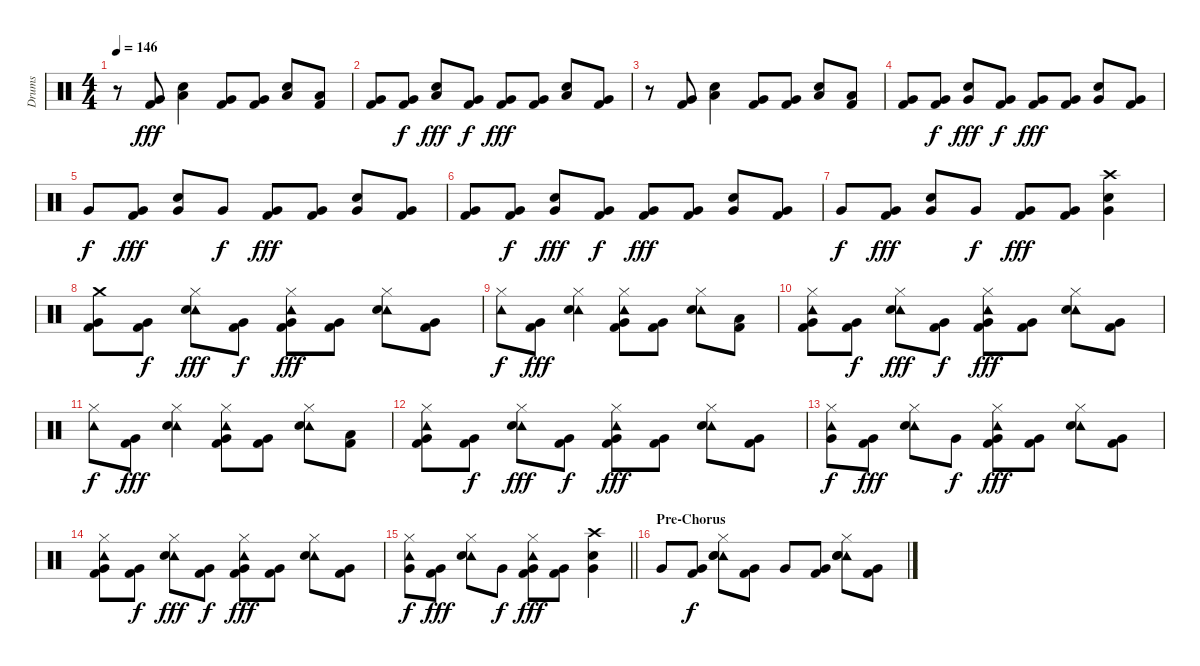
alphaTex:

\track ("Drums" "Drums") {instrument percussion}
\staff {score}
\articulation defaults
\ts (4 4)
\tempo 146
\clef neutral
\ks c
r.8{dy fff} ("Very Low Tom (hit)" "Kick (hit) 2").8 ("Electric Snare (hit)" "Low Tom (hit)").4 ("Very Low Tom (hit)" "Kick (hit) 2").8 ("Very Low Tom (hit)" "Kick (hit) 2").8 ("Electric Snare (hit)" "Low Tom (hit)").8 ("Low Tom (hit)" "Kick (hit) 2").8 |
("Very Low Tom (hit)" "Kick (hit) 2").8 ("Very Low Tom (hit)" "Kick (hit) 2").8{dy f} ("Electric Snare (hit)" "Low Tom (hit)").8{dy fff} ("Very Low Tom (hit)" "Kick (hit) 2").8{dy f} ("Very Low Tom (hit)" "Kick (hit) 2").8{dy fff} ("Very Low Tom (hit)" "Kick (hit) 2").8 ("Electric Snare (hit)" "Low Tom (hit)").8 ("Very Low Tom (hit)" "Kick (hit) 2").8 |
r.8 ("Very Low Tom (hit)" "Kick (hit) 2").8 ("Electric Snare (hit)" "Low Tom (hit)").4 ("Very Low Tom (hit)" "Kick (hit) 2").8 ("Very Low Tom (hit)" "Kick (hit) 2").8 ("Electric Snare (hit)" "Low Tom (hit)").8 ("Low Tom (hit)" "Kick (hit) 2").8 |
("Very Low Tom (hit)" "Kick (hit) 2").8 ("Very Low Tom (hit)" "Kick (hit) 2").8{dy f} ("Electric Snare (hit)" "Very Low Tom (hit)").8{dy fff} ("Very Low Tom (hit)" "Kick (hit) 2").8{dy f} ("Very Low Tom (hit)" "Kick (hit) 2").8{dy fff} ("Very Low Tom (hit)" "Kick (hit) 2").8 ("Electric Snare (hit)" "Very Low Tom (hit)").8 ("Very Low Tom (hit)" "Kick (hit) 2").8 |
"Very Low Tom (hit)".8{dy f} ("Very Low Tom (hit)" "Kick (hit) 2").8{dy fff} ("Electric Snare (hit)" "Very Low Tom (hit)").8 "Very Low Tom (hit)".8{dy f} ("Very Low Tom (hit)" "Kick (hit) 2").8{dy fff} ("Very Low Tom (hit)" "Kick (hit) 2").8 ("Electric Snare (hit)" "Very Low Tom (hit)").8 ("Very Low Tom (hit)" "Kick (hit) 2").8 |
("Very Low Tom (hit)" "Kick (hit) 2").8 ("Very Low Tom (hit)" "Kick (hit) 2").8{dy f} ("Electric Snare (hit)" "Very Low Tom (hit)").8{dy fff} ("Very Low Tom (hit)" "Kick (hit) 2").8{dy f} ("Very Low Tom (hit)" "Kick (hit) 2").8{dy fff} ("Very Low Tom (hit)" "Kick (hit) 2").8 ("Electric Snare (hit)" "Very Low Tom (hit)").8 ("Very Low Tom (hit)" "Kick (hit) 2").8 |
"Very Low Tom (hit)".8{dy f} ("Very Low Tom (hit)" "Kick (hit) 2").8{dy fff} ("Electric Snare (hit)" "Very Low Tom (hit)").8 "Very Low Tom (hit)".8{dy f} ("Very Low Tom (hit)" "Kick (hit) 2").8{dy fff} ("Very Low Tom (hit)" "Kick (hit) 2").8 ("Crash high (hit)" "Electric Snare (hit)" "Very Low Tom (hit)").4 |
("Crash medium (hit)" "Very Low Tom (hit)" "Kick (hit) 2").8 ("Very Low Tom (hit)" "Kick (hit) 2").8{dy f} ("Tambourine (hit)" "Hi-Hat (closed)" "Electric Snare (hit)").8{dy fff} ("Very Low Tom (hit)" "Kick (hit) 2").8{dy f} ("Tambourine (hit)" "Hi-Hat (closed)" "Very Low Tom (hit)" "Kick (hit) 2").8{dy fff} ("Very Low Tom (hit)" "Kick (hit) 2").8 ("Tambourine (hit)" "Hi-Hat (closed)" "Electric Snare (hit)").8 ("Very Low Tom (hit)" "Kick (hit) 2").8 |
("Tambourine (hit)" "Hi-Hat (closed)").8{dy f} ("Very Low Tom (hit)" "Kick (hit) 2").8{dy fff} ("Tambourine (hit)" "Hi-Hat (closed)" "Electric Snare (hit)").4 ("Tambourine (hit)" "Hi-Hat (closed)" "Very Low Tom (hit)" "Kick (hit) 2").8 ("Very Low Tom (hit)" "Kick (hit) 2").8 ("Tambourine (hit)" "Hi-Hat (closed)" "Electric Snare (hit)").8 ("Low Tom (hit)" "Kick (hit) 2").8 |
("Tambourine (hit)" "Hi-Hat (closed)" "Very Low Tom (hit)" "Kick (hit) 2").8 ("Very Low Tom (hit)" "Kick (hit) 2").8{dy f} ("Tambourine (hit)" "Hi-Hat (closed)" "Electric Snare (hit)").8{dy fff} ("Very Low Tom (hit)" "Kick (hit) 2").8{dy f} ("Tambourine (hit)" "Hi-Hat (closed)" "Very Low Tom (hit)" "Kick (hit) 2").8{dy fff} ("Very Low Tom (hit)" "Kick (hit) 2").8 ("Tambourine (hit)" "Hi-Hat (closed)" "Electric Snare (hit)").8 ("Very Low Tom (hit)" "Kick (hit) 2").8 |
("Tambourine (hit)" "Hi-Hat (closed)").8{dy f} ("Very Low Tom (hit)" "Kick (hit) 2").8{dy fff} ("Tambourine (hit)" "Hi-Hat (closed)" "Electric Snare (hit)").4 ("Tambourine (hit)" "Hi-Hat (closed)" "Very Low Tom (hit)" "Kick (hit) 2").8 ("Very Low Tom (hit)" "Kick (hit) 2").8 ("Tambourine (hit)" "Hi-Hat (closed)" "Electric Snare (hit)").8 ("Low Tom (hit)" "Kick (hit) 2").8 |
("Tambourine (hit)" "Hi-Hat (closed)" "Very Low Tom (hit)" "Kick (hit) 2").8 ("Very Low Tom (hit)" "Kick (hit) 2").8{dy f} ("Tambourine (hit)" "Hi-Hat (closed)" "Electric Snare (hit)").8{dy fff} ("Very Low Tom (hit)" "Kick (hit) 2").8{dy f} ("Tambourine (hit)" "Hi-Hat (closed)" "Very Low Tom (hit)" "Kick (hit) 2").8{dy fff} ("Very Low Tom (hit)" "Kick (hit) 2").8 ("Tambourine (hit)" "Hi-Hat (closed)" "Electric Snare (hit)").8 ("Very Low Tom (hit)" "Kick (hit) 2").8 |
("Tambourine (hit)" "Hi-Hat (closed)" "Very Low Tom (hit)").8{dy f} ("Very Low Tom (hit)" "Kick (hit) 2").8{dy fff} ("Tambourine (hit)" "Hi-Hat (closed)" "Electric Snare (hit)").8 "Very Low Tom (hit)".8{dy f} ("Tambourine (hit)" "Hi-Hat (closed)" "Very Low Tom (hit)" "Kick (hit) 2").8{dy fff} ("Very Low Tom (hit)" "Kick (hit) 2").8 ("Tambourine (hit)" "Hi-Hat (closed)" "Electric Snare (hit)").8 ("Very Low Tom (hit)" "Kick (hit) 2").8 |
("Tambourine (hit)" "Hi-Hat (closed)" "Very Low Tom (hit)" "Kick (hit) 2").8 ("Very Low Tom (hit)" "Kick (hit) 2").8{dy f} ("Tambourine (hit)" "Hi-Hat (closed)" "Electric Snare (hit)").8{dy fff} ("Very Low Tom (hit)" "Kick (hit) 2").8{dy f} ("Tambourine (hit)" "Hi-Hat (closed)" "Very Low Tom (hit)" "Kick (hit) 2").8{dy fff} ("Very Low Tom (hit)" "Kick (hit) 2").8 ("Tambourine (hit)" "Hi-Hat (closed)" "Electric Snare (hit)").8 ("Very Low Tom (hit)" "Kick (hit) 2").8 |
\barLineRight lightlight
("Tambourine (hit)" "Hi-Hat (closed)" "Very Low Tom (hit)").8{dy f} ("Very Low Tom (hit)" "Kick (hit) 2").8{dy fff} ("Tambourine (hit)" "Hi-Hat (closed)" "Electric Snare (hit)").8 "Very Low Tom (hit)".8{dy f} ("Tambourine (hit)" "Hi-Hat (closed)" "Very Low Tom (hit)" "Kick (hit) 2").8{dy fff} ("Very Low Tom (hit)" "Kick (hit) 2").8 ("Crash high (hit)" "Electric Snare (hit)" "Very Low Tom (hit)").4 |
\section ("" "Pre-Chorus")
"Very Low Tom (hit)".8 ("Very Low Tom (hit)" "Kick (hit) 2").8{dy f} ("Hi-Hat (closed)" "Tambourine (hit)" "Electric Snare (hit)" "Electric Snare (hit)").8 ("Very Low Tom (hit)" "Kick (hit) 2").8 "Very Low Tom (hit)".8 ("Very Low Tom (hit)" "Kick (hit) 2").8 ("Hi-Hat (closed)" "Tambourine (hit)" "Electric Snare (hit)" "Electric Snare (hit)").8 ("Very Low Tom (hit)" "Kick (hit) 2").8
